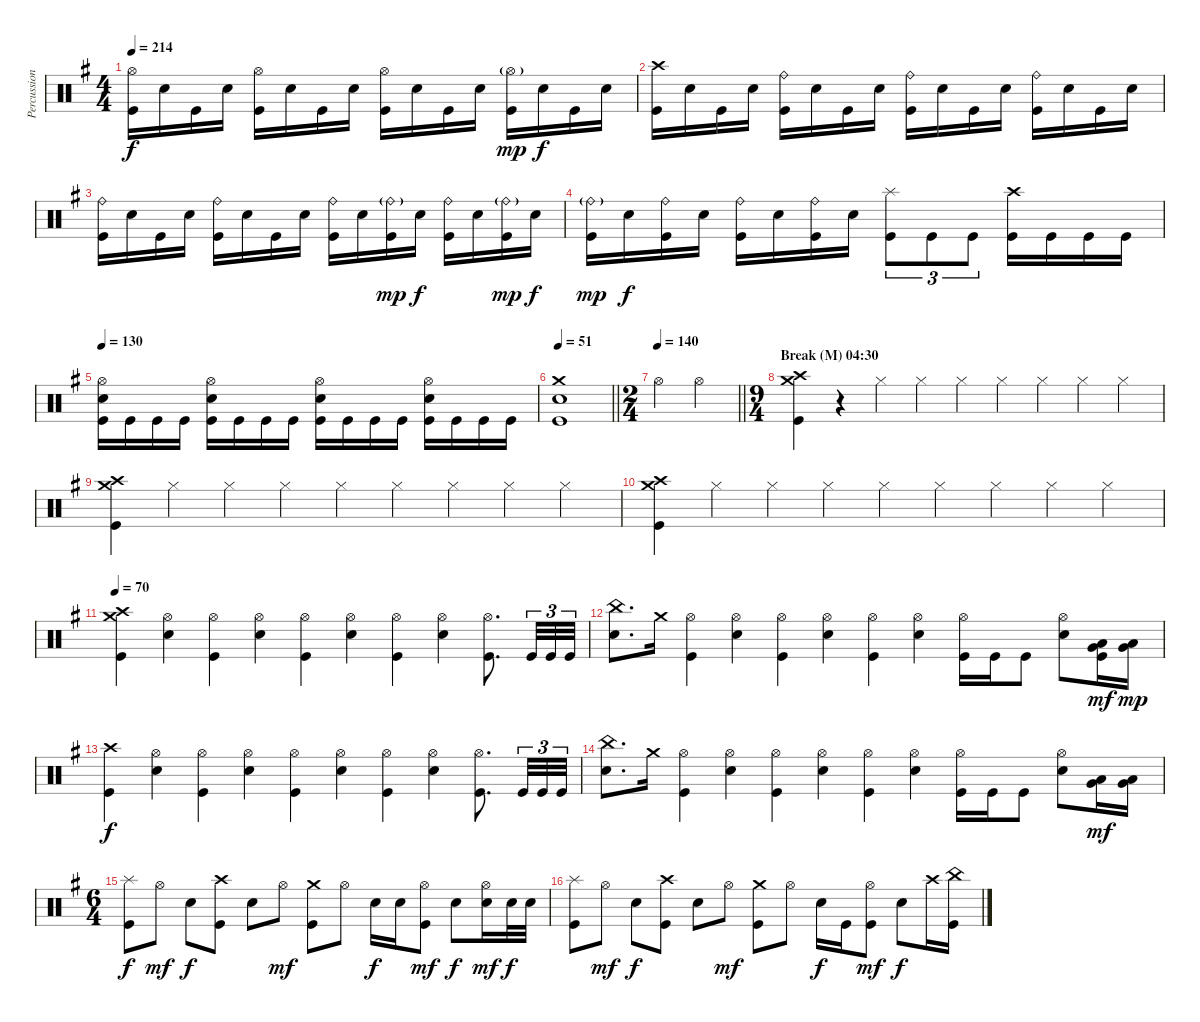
\track ("Percussion" "Percussion") {instrument percussion}
\staff {score}
\articulation defaults
\ts (4 4)
\tempo 214
\clef neutral
\ks eminor
("Hi-Hat (open)" "Kick (hit)").16{dy f} "Snare (hit) 2".16 "Kick (hit)".16 "Snare (hit) 2".16 ("Hi-Hat (open)" "Kick (hit)").16 "Snare (hit) 2".16 "Kick (hit)".16 "Snare (hit) 2".16 ("Hi-Hat (open)" "Kick (hit)").16 "Snare (hit) 2".16 "Kick (hit)".16 "Snare (hit) 2".16 ("Hi-Hat (open)"{g} "Kick (hit)").16{dy mp} "Snare (hit) 2".16{dy f} "Kick (hit)".16 "Snare (hit) 2".16 |
("Crash high (hit)" "Kick (hit)").16 "Snare (hit) 2".16 "Kick (hit)".16 "Snare (hit) 2".16 ("Ride (bell)" "Kick (hit)").16 "Snare (hit) 2".16 "Kick (hit)".16 "Snare (hit) 2".16 ("Ride (bell)" "Kick (hit)").16 "Snare (hit) 2".16 "Kick (hit)".16 "Snare (hit) 2".16 ("Ride (bell)" "Kick (hit)").16 "Snare (hit) 2".16 "Kick (hit)".16 "Snare (hit) 2".16 |
("Ride (bell)" "Kick (hit)").16 "Snare (hit) 2".16 "Kick (hit)".16 "Snare (hit) 2".16 ("Ride (bell)" "Kick (hit)").16 "Snare (hit) 2".16 "Kick (hit)".16 "Snare (hit) 2".16 ("Ride (bell)" "Kick (hit)").16 "Snare (hit) 2".16 ("Ride (bell)"{g} "Kick (hit)").16{dy mp} "Snare (hit) 2".16{dy f} ("Ride (bell)" "Kick (hit)").16 "Snare (hit) 2".16 ("Ride (bell)"{g} "Kick (hit)").16{dy mp} "Snare (hit) 2".16{dy f} |
("Ride (bell)"{g} "Kick (hit)").16{dy mp} "Snare (hit) 2".16{dy f} ("Ride (bell)" "Kick (hit)").16 "Snare (hit) 2".16 ("Ride (bell)" "Kick (hit)").16 "Snare (hit) 2".16 ("Ride (bell)" "Kick (hit)").16 "Snare (hit) 2".16 ("Splash (hit)" "Kick (hit)").8{tu (3 2)} "Kick (hit)".8{tu (3 2)} "Kick (hit)".8{tu (3 2)} ("Crash high (hit)" "Kick (hit)").16 "Kick (hit)".16 "Kick (hit)".16 "Kick (hit)".16 |
\tempo 130
("Hi-Hat (open)" "Snare (hit) 2" "Kick (hit)").16 "Kick (hit)".16 "Kick (hit)".16 "Kick (hit)".16 ("Hi-Hat (open)" "Snare (hit) 2" "Kick (hit)").16 "Kick (hit)".16 "Kick (hit)".16 "Kick (hit)".16 ("Hi-Hat (open)" "Snare (hit) 2" "Kick (hit)").16 "Kick (hit)".16 "Kick (hit)".16 "Kick (hit)".16 ("Hi-Hat (open)" "Snare (hit) 2" "Kick (hit)").16 "Kick (hit)".16 "Kick (hit)".16 "Kick (hit)".16 |
\tempo 51
\barLineRight lightlight
("Crash medium (hit)" "Snare (hit) 2" "Kick (hit)").1 |
\ts (2 4)
\tempo 140
\barLineRight lightlight "Hi-Hat (open)".4 "Hi-Hat (open)".4
|
\ts (9 4)
\section ("" "Break (M) 04:30")
("Crash medium (hit)" "Crash high (hit)" "Kick (hit)").4 r.4 "Hi-Hat (closed)".4 "Hi-Hat (closed)".4 "Hi-Hat (closed)".4 "Hi-Hat (closed)".4 "Hi-Hat (closed)".4 "Hi-Hat (closed)".4 "Hi-Hat (closed)".4 |
("Crash medium (hit)" "Crash high (hit)" "Kick (hit)").4 "Hi-Hat (closed)".4 "Hi-Hat (closed)".4 "Hi-Hat (closed)".4 "Hi-Hat (closed)".4 "Hi-Hat (closed)".4 "Hi-Hat (closed)".4 "Hi-Hat (closed)".4 "Hi-Hat (closed)".4 |
("Crash medium (hit)" "Crash high (hit)" "Kick (hit)").4 "Hi-Hat (closed)".4 "Hi-Hat (closed)".4 "Hi-Hat (closed)".4 "Hi-Hat (closed)".4 "Hi-Hat (closed)".4 "Hi-Hat (closed)".4 "Hi-Hat (closed)".4 "Hi-Hat (closed)".4 |
\tempo 70
("Crash medium (hit)" "Crash high (hit)" "Kick (hit)").4 ("Hi-Hat (open)" "Snare (hit) 2").4 ("Hi-Hat (open)" "Kick (hit)").4 ("Hi-Hat (open)" "Snare (hit) 2").4 ("Hi-Hat (open)" "Kick (hit)").4 ("Hi-Hat (open)" "Snare (hit) 2").4 ("Hi-Hat (open)" "Kick (hit)").4 ("Hi-Hat (open)" "Snare (hit) 2").4 ("Hi-Hat (open)" "Kick (hit)").8{d} "Kick (hit)".32{tu (3 2)} "Kick (hit)".32{tu (3 2)} "Kick (hit)".32{tu (3 2)} |
("China (hit)" "Snare (hit) 2").8{d} "Crash medium (hit)".16 ("Hi-Hat (open)" "Kick (hit)").4 ("Hi-Hat (open)" "Snare (hit) 2").4 ("Hi-Hat (open)" "Kick (hit)").4 ("Hi-Hat (open)" "Snare (hit) 2").4 ("Hi-Hat (open)" "Kick (hit)").4 ("Hi-Hat (open)" "Snare (hit) 2").4 ("Hi-Hat (open)" "Kick (hit)").16 "Kick (hit)".16 "Kick (hit)".8 ("Hi-Hat (open)" "Snare (hit) 2").8 ("Very Low Tom (hit)" "Low Floor Tom (hit)" "Kick (hit)").16{dy mf} ("Very Low Tom (hit)" "Low Floor Tom (hit)").16{dy mp} |
("Crash high (hit)" "Kick (hit)").4{dy f} ("Hi-Hat (open)" "Snare (hit) 2").4 ("Hi-Hat (open)" "Kick (hit)").4 ("Hi-Hat (open)" "Snare (hit) 2").4 ("Hi-Hat (open)" "Kick (hit)").4 ("Hi-Hat (open)" "Snare (hit) 2").4 ("Hi-Hat (open)" "Kick (hit)").4 ("Hi-Hat (open)" "Snare (hit) 2").4 ("Hi-Hat (open)" "Kick (hit)").8{d} "Kick (hit)".32{tu (3 2)} "Kick (hit)".32{tu (3 2)} "Kick (hit)".32{tu (3 2)} |
("China (hit)" "Snare (hit) 2").8{d} "Crash medium (hit)".16 ("Hi-Hat (open)" "Kick (hit)").4 ("Hi-Hat (open)" "Snare (hit) 2").4 ("Hi-Hat (open)" "Kick (hit)").4 ("Hi-Hat (open)" "Snare (hit) 2").4 ("Hi-Hat (open)" "Kick (hit)").4 ("Hi-Hat (open)" "Snare (hit) 2").4 ("Hi-Hat (open)" "Kick (hit)").16 "Kick (hit)".16 "Kick (hit)".8 ("Hi-Hat (open)" "Snare (hit) 2").8 ("Very Low Tom (hit)" "Low Floor Tom (hit)").16{dy mf} ("Very Low Tom (hit)" "Low Floor Tom (hit)").16 |
\ts (6 4)
("Splash (hit)" "Kick (hit)").8{dy f} "Hi-Hat (open)".8{dy mf} "Snare (hit) 2".8{dy f} ("Crash high (hit)" "Kick (hit)").8 "Snare (hit) 2".8 "Hi-Hat (open)".8{dy mf} ("Crash medium (hit)" "Kick (hit)").8 "Hi-Hat (open)".8 "Snare (hit) 2".16{dy f} "Snare (hit) 2".16 ("Hi-Hat (open)" "Kick (hit)").8{dy mf} "Snare (hit) 2".8{dy f} ("Hi-Hat (open)" "Snare (hit) 2").16{dy mf} "Snare (hit) 2".32{dy f} "Snare (hit) 2".32 |
("Splash (hit)" "Kick (hit)").8 "Hi-Hat (open)".8{dy mf} "Snare (hit) 2".8{dy f} ("Crash high (hit)" "Kick (hit)").8 "Snare (hit) 2".8 "Hi-Hat (open)".8{dy mf} ("Crash medium (hit)" "Kick (hit)").8 "Hi-Hat (open)".8 "Snare (hit) 2".16{dy f} "Kick (hit)".16 ("Hi-Hat (open)" "Kick (hit)").8{dy mf} "Snare (hit) 2".8{dy f} "Crash high (hit)".16 ("China (hit)" "Kick (hit)").16
